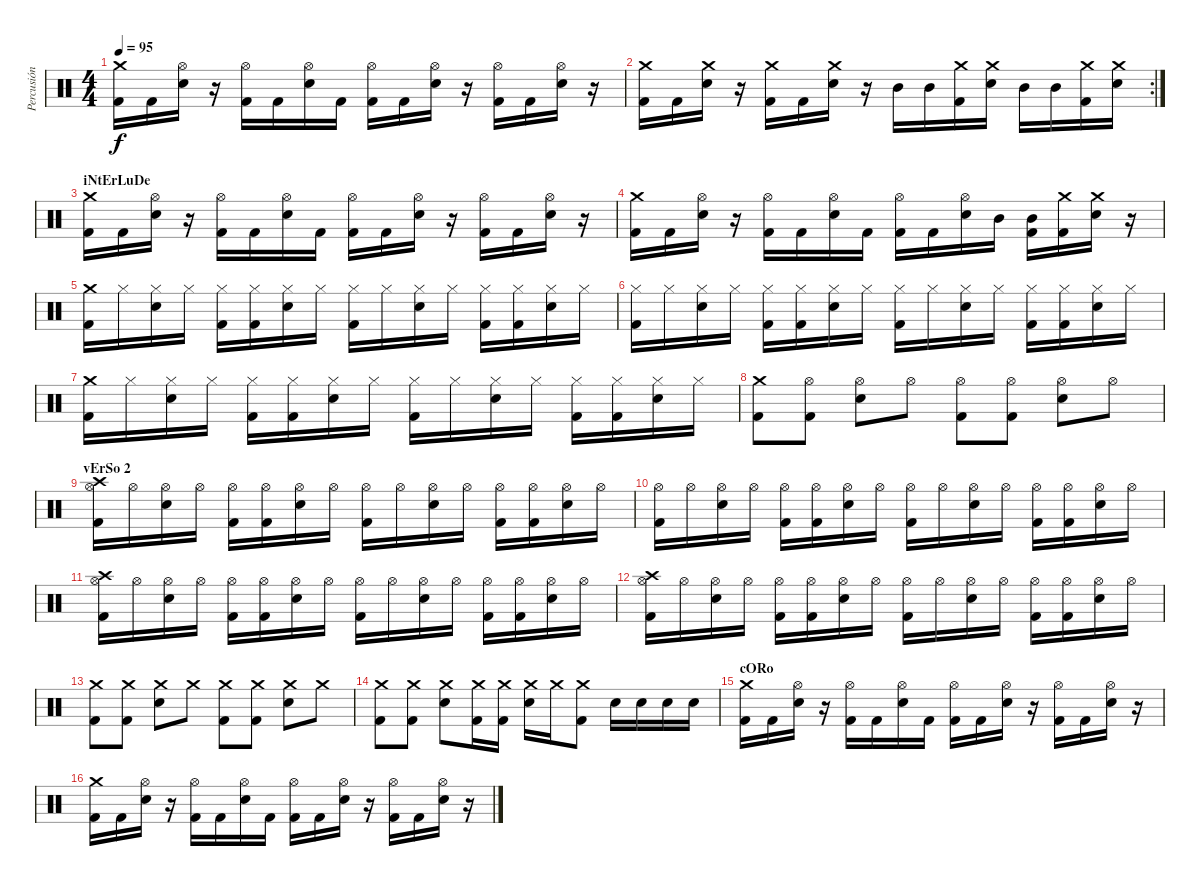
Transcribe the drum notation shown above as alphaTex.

\track ("Percusión" "Percusión") {instrument percussion}
\staff {score}
\articulation defaults
\ts (4 4)
\tempo 95
\clef neutral
\ks c
("Crash medium (hit)" "Kick (hit) 2").16{dy f} "Kick (hit) 2".16 ("Hi-Hat (open)" "Electric Snare (hit)").16 r.16 ("Hi-Hat (open)" "Kick (hit) 2").16 "Kick (hit) 2".16 ("Hi-Hat (open)" "Electric Snare (hit)").16 "Kick (hit) 2".16 ("Hi-Hat (open)" "Kick (hit) 2").16 "Kick (hit) 2".16 ("Hi-Hat (open)" "Electric Snare (hit)").16 r.16 ("Hi-Hat (open)" "Kick (hit) 2").16 "Kick (hit) 2".16 ("Hi-Hat (open)" "Electric Snare (hit)").16 r.16 |
\rc 2
("Crash medium (hit)" "Kick (hit) 2").16 "Kick (hit) 2".16 ("Crash medium (hit)" "Electric Snare (hit)").16 r.16 ("Crash medium (hit)" "Kick (hit) 2").16 "Kick (hit) 2".16 ("Crash medium (hit)" "Electric Snare (hit)").16 r.16 "Mid Tom (hit)".16 "Mid Tom (hit)".16 ("Crash medium (hit)" "Kick (hit) 2").16 ("Crash medium (hit)" "Electric Snare (hit)").16 "Mid Tom (hit)".16 "Mid Tom (hit)".16 ("Crash medium (hit)" "Kick (hit) 2").16 ("Crash medium (hit)" "Electric Snare (hit)").16 |
\section ("" "iNtErLuDe")
("Crash medium (hit)" "Kick (hit) 2").16 "Kick (hit) 2".16 ("Hi-Hat (open)" "Electric Snare (hit)").16 r.16 ("Hi-Hat (open)" "Kick (hit) 2").16 "Kick (hit) 2".16 ("Hi-Hat (open)" "Electric Snare (hit)").16 "Kick (hit) 2".16 ("Hi-Hat (open)" "Kick (hit) 2").16 "Kick (hit) 2".16 ("Hi-Hat (open)" "Electric Snare (hit)").16 r.16 ("Hi-Hat (open)" "Kick (hit) 2").16 "Kick (hit) 2".16 ("Hi-Hat (open)" "Electric Snare (hit)").16 r.16 |
("Crash medium (hit)" "Kick (hit) 2").16 "Kick (hit) 2".16 ("Hi-Hat (open)" "Electric Snare (hit)").16 r.16 ("Hi-Hat (open)" "Kick (hit) 2").16 "Kick (hit) 2".16 ("Hi-Hat (open)" "Electric Snare (hit)").16 "Kick (hit) 2".16 ("Hi-Hat (open)" "Kick (hit) 2").16 "Kick (hit) 2".16 ("Hi-Hat (open)" "Electric Snare (hit)").16 "Mid Tom (hit)".16 ("Mid Tom (hit)" "Kick (hit) 2").16 ("Crash medium (hit)" "Kick (hit) 2").16 ("Crash medium (hit)" "Electric Snare (hit)").16 r.16 |
("Crash medium (hit)" "Kick (hit) 2").16 "Hi-Hat (closed)".16 ("Hi-Hat (closed)" "Electric Snare (hit)").16 "Hi-Hat (closed)".16 ("Hi-Hat (closed)" "Kick (hit) 2").16 ("Hi-Hat (closed)" "Kick (hit) 2").16 ("Hi-Hat (closed)" "Electric Snare (hit)").16 "Hi-Hat (closed)".16 ("Hi-Hat (closed)" "Kick (hit) 2").16 "Hi-Hat (closed)".16 ("Hi-Hat (closed)" "Electric Snare (hit)").16 "Hi-Hat (closed)".16 ("Hi-Hat (closed)" "Kick (hit) 2").16 ("Hi-Hat (closed)" "Kick (hit) 2").16 ("Hi-Hat (closed)" "Electric Snare (hit)").16 "Hi-Hat (closed)".16 |
("Hi-Hat (closed)" "Kick (hit) 2").16 "Hi-Hat (closed)".16 ("Hi-Hat (closed)" "Electric Snare (hit)").16 "Hi-Hat (closed)".16 ("Hi-Hat (closed)" "Kick (hit) 2").16 ("Hi-Hat (closed)" "Kick (hit) 2").16 ("Hi-Hat (closed)" "Electric Snare (hit)").16 "Hi-Hat (closed)".16 ("Hi-Hat (closed)" "Kick (hit) 2").16 "Hi-Hat (closed)".16 ("Hi-Hat (closed)" "Electric Snare (hit)").16 "Hi-Hat (closed)".16 ("Hi-Hat (closed)" "Kick (hit) 2").16 ("Hi-Hat (closed)" "Kick (hit) 2").16 ("Hi-Hat (closed)" "Electric Snare (hit)").16 "Hi-Hat (closed)".16 |
("Crash medium (hit)" "Kick (hit) 2").16 "Hi-Hat (closed)".16 ("Hi-Hat (closed)" "Electric Snare (hit)").16 "Hi-Hat (closed)".16 ("Hi-Hat (closed)" "Kick (hit) 2").16 ("Hi-Hat (closed)" "Kick (hit) 2").16 ("Hi-Hat (closed)" "Electric Snare (hit)").16 "Hi-Hat (closed)".16 ("Hi-Hat (closed)" "Kick (hit) 2").16 "Hi-Hat (closed)".16 ("Hi-Hat (closed)" "Electric Snare (hit)").16 "Hi-Hat (closed)".16 ("Hi-Hat (closed)" "Kick (hit) 2").16 ("Hi-Hat (closed)" "Kick (hit) 2").16 ("Hi-Hat (closed)" "Electric Snare (hit)").16 "Hi-Hat (closed)".16 |
("Crash medium (hit)" "Kick (hit) 2").8 ("Hi-Hat (open)" "Kick (hit) 2").8 ("Hi-Hat (open)" "Electric Snare (hit)").8 "Hi-Hat (open)".8 ("Hi-Hat (open)" "Kick (hit) 2").8 ("Hi-Hat (open)" "Kick (hit) 2").8 ("Hi-Hat (open)" "Electric Snare (hit)").8 "Hi-Hat (open)".8 |
\section ("" "vErSo 2")
("Hi-Hat (open)" "Crash high (hit)" "Kick (hit) 2").16 "Hi-Hat (open)".16 ("Hi-Hat (open)" "Electric Snare (hit)").16 "Hi-Hat (open)".16 ("Hi-Hat (open)" "Kick (hit) 2").16 ("Hi-Hat (open)" "Kick (hit) 2").16 ("Hi-Hat (open)" "Electric Snare (hit)").16 "Hi-Hat (open)".16 ("Hi-Hat (open)" "Kick (hit) 2").16 "Hi-Hat (open)".16 ("Hi-Hat (open)" "Electric Snare (hit)").16 "Hi-Hat (open)".16 ("Hi-Hat (open)" "Kick (hit) 2").16 ("Hi-Hat (open)" "Kick (hit) 2").16 ("Hi-Hat (open)" "Electric Snare (hit)").16 "Hi-Hat (open)".16 |
("Hi-Hat (open)" "Kick (hit) 2").16 "Hi-Hat (open)".16 ("Hi-Hat (open)" "Electric Snare (hit)").16 "Hi-Hat (open)".16 ("Hi-Hat (open)" "Kick (hit) 2").16 ("Hi-Hat (open)" "Kick (hit) 2").16 ("Hi-Hat (open)" "Electric Snare (hit)").16 "Hi-Hat (open)".16 ("Hi-Hat (open)" "Kick (hit) 2").16 "Hi-Hat (open)".16 ("Hi-Hat (open)" "Electric Snare (hit)").16 "Hi-Hat (open)".16 ("Hi-Hat (open)" "Kick (hit) 2").16 ("Hi-Hat (open)" "Kick (hit) 2").16 ("Hi-Hat (open)" "Electric Snare (hit)").16 "Hi-Hat (open)".16 |
("Hi-Hat (open)" "Crash high (hit)" "Kick (hit) 2").16 "Hi-Hat (open)".16 ("Hi-Hat (open)" "Electric Snare (hit)").16 "Hi-Hat (open)".16 ("Hi-Hat (open)" "Kick (hit) 2").16 ("Hi-Hat (open)" "Kick (hit) 2").16 ("Hi-Hat (open)" "Electric Snare (hit)").16 "Hi-Hat (open)".16 ("Hi-Hat (open)" "Kick (hit) 2").16 "Hi-Hat (open)".16 ("Hi-Hat (open)" "Electric Snare (hit)").16 "Hi-Hat (open)".16 ("Hi-Hat (open)" "Kick (hit) 2").16 ("Hi-Hat (open)" "Kick (hit) 2").16 ("Hi-Hat (open)" "Electric Snare (hit)").16 "Hi-Hat (open)".16 |
("Hi-Hat (open)" "Crash high (hit)" "Kick (hit) 2").16 "Hi-Hat (open)".16 ("Hi-Hat (open)" "Electric Snare (hit)").16 "Hi-Hat (open)".16 ("Hi-Hat (open)" "Kick (hit) 2").16 ("Hi-Hat (open)" "Kick (hit) 2").16 ("Hi-Hat (open)" "Electric Snare (hit)").16 "Hi-Hat (open)".16 ("Hi-Hat (open)" "Kick (hit) 2").16 "Hi-Hat (open)".16 ("Hi-Hat (open)" "Electric Snare (hit)").16 "Hi-Hat (open)".16 ("Hi-Hat (open)" "Kick (hit) 2").16 ("Hi-Hat (open)" "Kick (hit) 2").16 ("Hi-Hat (open)" "Electric Snare (hit)").16 "Hi-Hat (open)".16 |
("Crash medium (hit)" "Kick (hit) 2").8 ("Crash medium (hit)" "Kick (hit) 2").8 ("Crash medium (hit)" "Electric Snare (hit)").8 "Crash medium (hit)".8 ("Crash medium (hit)" "Kick (hit) 2").8 ("Crash medium (hit)" "Kick (hit) 2").8 ("Crash medium (hit)" "Electric Snare (hit)").8 "Crash medium (hit)".8 |
("Crash medium (hit)" "Kick (hit) 2").8 ("Crash medium (hit)" "Kick (hit) 2").8 ("Crash medium (hit)" "Electric Snare (hit)").8 ("Crash medium (hit)" "Kick (hit) 2").16 ("Crash medium (hit)" "Kick (hit) 2").16 ("Crash medium (hit)" "Electric Snare (hit)").16 "Crash medium (hit)".16 ("Crash medium (hit)" "Kick (hit) 2").8 "Electric Snare (hit)".16 "Electric Snare (hit)".16 "Electric Snare (hit)".16 "Electric Snare (hit)".16 |
\section ("" "cORo")
("Crash medium (hit)" "Kick (hit) 2").16 "Kick (hit) 2".16 ("Hi-Hat (open)" "Electric Snare (hit)").16 r.16 ("Hi-Hat (open)" "Kick (hit) 2").16 "Kick (hit) 2".16 ("Hi-Hat (open)" "Electric Snare (hit)").16 "Kick (hit) 2".16 ("Hi-Hat (open)" "Kick (hit) 2").16 "Kick (hit) 2".16 ("Hi-Hat (open)" "Electric Snare (hit)").16 r.16 ("Hi-Hat (open)" "Kick (hit) 2").16 "Kick (hit) 2".16 ("Hi-Hat (open)" "Electric Snare (hit)").16 r.16 |
("Crash medium (hit)" "Kick (hit) 2").16 "Kick (hit) 2".16 ("Hi-Hat (open)" "Electric Snare (hit)").16 r.16 ("Hi-Hat (open)" "Kick (hit) 2").16 "Kick (hit) 2".16 ("Hi-Hat (open)" "Electric Snare (hit)").16 "Kick (hit) 2".16 ("Hi-Hat (open)" "Kick (hit) 2").16 "Kick (hit) 2".16 ("Hi-Hat (open)" "Electric Snare (hit)").16 r.16 ("Hi-Hat (open)" "Kick (hit) 2").16 "Kick (hit) 2".16 ("Hi-Hat (open)" "Electric Snare (hit)").16 r.16
